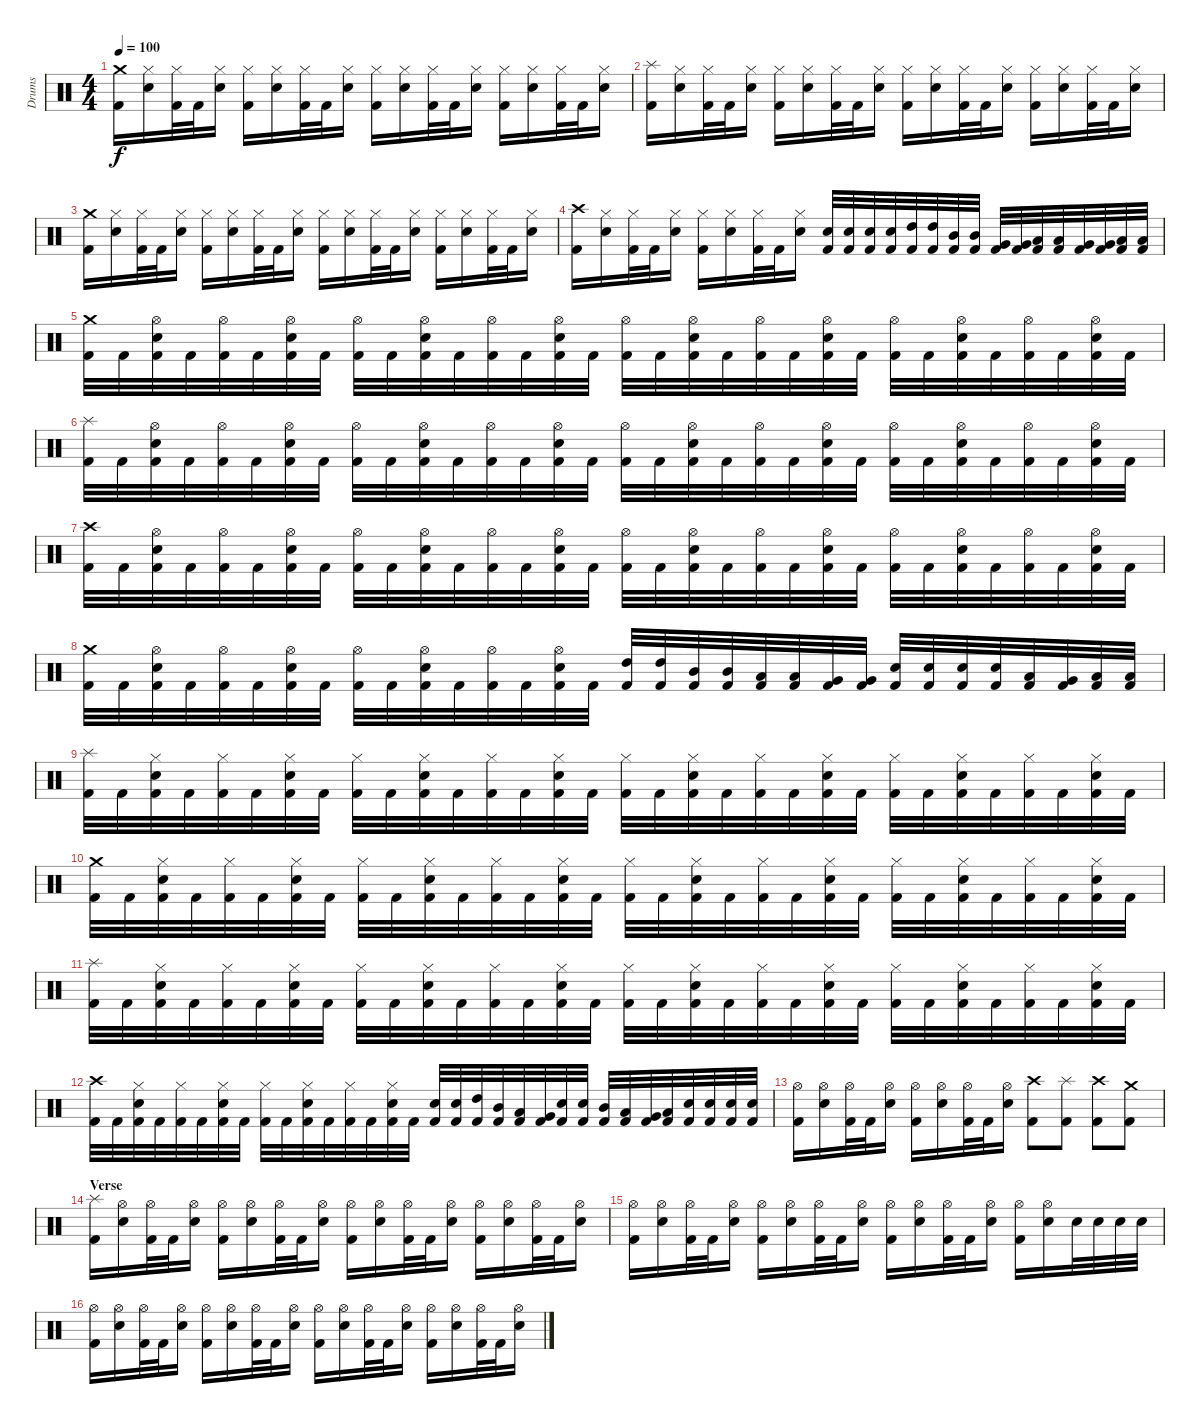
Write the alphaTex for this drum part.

\track ("Drums" "Drums") {instrument percussion}
\staff {score}
\articulation defaults
\ts (4 4)
\section ("" "")
\tempo 100
\clef neutral
\ks c
("Kick (hit) 2" "Crash medium (hit)").16{dy f} ("Electric Snare (hit)" "Hi-Hat (closed)").16 ("Kick (hit) 2" "Hi-Hat (closed)").32 "Kick (hit) 2".32 ("Electric Snare (hit)" "Hi-Hat (closed)").16 ("Kick (hit) 2" "Hi-Hat (closed)").16 ("Electric Snare (hit)" "Hi-Hat (closed)").16 ("Kick (hit) 2" "Hi-Hat (closed)").32 "Kick (hit) 2".32 ("Electric Snare (hit)" "Hi-Hat (closed)").16 ("Kick (hit) 2" "Hi-Hat (closed)").16 ("Electric Snare (hit)" "Hi-Hat (closed)").16 ("Kick (hit) 2" "Hi-Hat (closed)").32 "Kick (hit) 2".32 ("Electric Snare (hit)" "Hi-Hat (closed)").16 ("Kick (hit) 2" "Hi-Hat (closed)").16 ("Electric Snare (hit)" "Hi-Hat (closed)").16 ("Kick (hit) 2" "Hi-Hat (closed)").32 "Kick (hit) 2".32 ("Electric Snare (hit)" "Hi-Hat (closed)").16 |
("Kick (hit) 2" "Splash (hit)").16 ("Electric Snare (hit)" "Hi-Hat (closed)").16 ("Kick (hit) 2" "Hi-Hat (closed)").32 "Kick (hit) 2".32 ("Electric Snare (hit)" "Hi-Hat (closed)").16 ("Kick (hit) 2" "Hi-Hat (closed)").16 ("Electric Snare (hit)" "Hi-Hat (closed)").16 ("Kick (hit) 2" "Hi-Hat (closed)").32 "Kick (hit) 2".32 ("Electric Snare (hit)" "Hi-Hat (closed)").16 ("Kick (hit) 2" "Hi-Hat (closed)").16 ("Electric Snare (hit)" "Hi-Hat (closed)").16 ("Kick (hit) 2" "Hi-Hat (closed)").32 "Kick (hit) 2".32 ("Electric Snare (hit)" "Hi-Hat (closed)").16 ("Kick (hit) 2" "Hi-Hat (closed)").16 ("Electric Snare (hit)" "Hi-Hat (closed)").16 ("Kick (hit) 2" "Hi-Hat (closed)").32 "Kick (hit) 2".32 ("Electric Snare (hit)" "Hi-Hat (closed)").16 |
("Kick (hit) 2" "Crash medium (hit)").16 ("Electric Snare (hit)" "Hi-Hat (closed)").16 ("Kick (hit) 2" "Hi-Hat (closed)").32 "Kick (hit) 2".32 ("Electric Snare (hit)" "Hi-Hat (closed)").16 ("Kick (hit) 2" "Hi-Hat (closed)").16 ("Electric Snare (hit)" "Hi-Hat (closed)").16 ("Kick (hit) 2" "Hi-Hat (closed)").32 "Kick (hit) 2".32 ("Electric Snare (hit)" "Hi-Hat (closed)").16 ("Kick (hit) 2" "Hi-Hat (closed)").16 ("Electric Snare (hit)" "Hi-Hat (closed)").16 ("Kick (hit) 2" "Hi-Hat (closed)").32 "Kick (hit) 2".32 ("Electric Snare (hit)" "Hi-Hat (closed)").16 ("Kick (hit) 2" "Hi-Hat (closed)").16 ("Electric Snare (hit)" "Hi-Hat (closed)").16 ("Kick (hit) 2" "Hi-Hat (closed)").32 "Kick (hit) 2".32 ("Electric Snare (hit)" "Hi-Hat (closed)").16 |
("Kick (hit) 2" "Crash high (hit)").16 ("Electric Snare (hit)" "Hi-Hat (closed)").16 ("Kick (hit) 2" "Hi-Hat (closed)").32 "Kick (hit) 2".32 ("Electric Snare (hit)" "Hi-Hat (closed)").16 ("Kick (hit) 2" "Hi-Hat (closed)").16 ("Electric Snare (hit)" "Hi-Hat (closed)").16 ("Kick (hit) 2" "Hi-Hat (closed)").32 "Kick (hit) 2".32 ("Electric Snare (hit)" "Hi-Hat (closed)").16 ("Kick (hit) 2" "Electric Snare (hit)").32 ("Kick (hit) 2" "Electric Snare (hit)").32 ("Kick (hit) 2" "Electric Snare (hit)").32 ("Kick (hit) 2" "Electric Snare (hit)").32 ("Kick (hit) 2" "High Tom (hit)").32 ("Kick (hit) 2" "High Tom (hit)").32 ("Kick (hit) 2" "Mid Tom (hit)").32 ("Kick (hit) 2" "Mid Tom (hit)").32 ("Kick (hit) 2" "Very Low Tom (hit)").32 ("Kick (hit) 2" "Very Low Tom (hit)").32 ("Kick (hit) 2" "Low Tom (hit)").32 ("Kick (hit) 2" "Low Tom (hit)").32 ("Kick (hit) 2" "Very Low Tom (hit)").32 ("Kick (hit) 2" "Very Low Tom (hit)").32 ("Kick (hit) 2" "Low Floor Tom (hit)").32 ("Kick (hit) 2" "Low Floor Tom (hit)").32 |
\section ("" "")
("Kick (hit) 2" "Crash medium (hit)").32 "Kick (hit) 2".32 ("Kick (hit) 2" "Electric Snare (hit)" "Hi-Hat (open)").32 "Kick (hit) 2".32 ("Kick (hit) 2" "Hi-Hat (open)").32 "Kick (hit) 2".32 ("Kick (hit) 2" "Electric Snare (hit)" "Hi-Hat (open)").32 "Kick (hit) 2".32 ("Kick (hit) 2" "Hi-Hat (open)").32 "Kick (hit) 2".32 ("Kick (hit) 2" "Electric Snare (hit)" "Hi-Hat (open)").32 "Kick (hit) 2".32 ("Kick (hit) 2" "Hi-Hat (open)").32 "Kick (hit) 2".32 ("Kick (hit) 2" "Electric Snare (hit)" "Hi-Hat (open)").32 "Kick (hit) 2".32 ("Kick (hit) 2" "Hi-Hat (open)").32 "Kick (hit) 2".32 ("Kick (hit) 2" "Electric Snare (hit)" "Hi-Hat (open)").32 "Kick (hit) 2".32 ("Kick (hit) 2" "Hi-Hat (open)").32 "Kick (hit) 2".32 ("Kick (hit) 2" "Electric Snare (hit)" "Hi-Hat (open)").32 "Kick (hit) 2".32 ("Kick (hit) 2" "Hi-Hat (open)").32 "Kick (hit) 2".32 ("Kick (hit) 2" "Electric Snare (hit)" "Hi-Hat (open)").32 "Kick (hit) 2".32 ("Kick (hit) 2" "Hi-Hat (open)").32 "Kick (hit) 2".32 ("Kick (hit) 2" "Electric Snare (hit)" "Hi-Hat (open)").32 "Kick (hit) 2".32 |
("Kick (hit) 2" "Splash (hit)").32 "Kick (hit) 2".32 ("Kick (hit) 2" "Electric Snare (hit)" "Hi-Hat (open)").32 "Kick (hit) 2".32 ("Kick (hit) 2" "Hi-Hat (open)").32 "Kick (hit) 2".32 ("Kick (hit) 2" "Electric Snare (hit)" "Hi-Hat (open)").32 "Kick (hit) 2".32 ("Kick (hit) 2" "Hi-Hat (open)").32 "Kick (hit) 2".32 ("Kick (hit) 2" "Electric Snare (hit)" "Hi-Hat (open)").32 "Kick (hit) 2".32 ("Kick (hit) 2" "Hi-Hat (open)").32 "Kick (hit) 2".32 ("Kick (hit) 2" "Electric Snare (hit)" "Hi-Hat (open)").32 "Kick (hit) 2".32 ("Kick (hit) 2" "Hi-Hat (open)").32 "Kick (hit) 2".32 ("Kick (hit) 2" "Electric Snare (hit)" "Hi-Hat (open)").32 "Kick (hit) 2".32 ("Kick (hit) 2" "Hi-Hat (open)").32 "Kick (hit) 2".32 ("Kick (hit) 2" "Electric Snare (hit)" "Hi-Hat (open)").32 "Kick (hit) 2".32 ("Kick (hit) 2" "Hi-Hat (open)").32 "Kick (hit) 2".32 ("Kick (hit) 2" "Electric Snare (hit)" "Hi-Hat (open)").32 "Kick (hit) 2".32 ("Kick (hit) 2" "Hi-Hat (open)").32 "Kick (hit) 2".32 ("Kick (hit) 2" "Electric Snare (hit)" "Hi-Hat (open)").32 "Kick (hit) 2".32 |
("Kick (hit) 2" "Crash high (hit)").32 "Kick (hit) 2".32 ("Kick (hit) 2" "Electric Snare (hit)" "Hi-Hat (open)").32 "Kick (hit) 2".32 ("Kick (hit) 2" "Hi-Hat (open)").32 "Kick (hit) 2".32 ("Kick (hit) 2" "Electric Snare (hit)" "Hi-Hat (open)").32 "Kick (hit) 2".32 ("Kick (hit) 2" "Hi-Hat (open)").32 "Kick (hit) 2".32 ("Kick (hit) 2" "Electric Snare (hit)" "Hi-Hat (open)").32 "Kick (hit) 2".32 ("Kick (hit) 2" "Hi-Hat (open)").32 "Kick (hit) 2".32 ("Kick (hit) 2" "Electric Snare (hit)" "Hi-Hat (open)").32 "Kick (hit) 2".32 ("Kick (hit) 2" "Hi-Hat (open)").32 "Kick (hit) 2".32 ("Kick (hit) 2" "Electric Snare (hit)" "Hi-Hat (open)").32 "Kick (hit) 2".32 ("Kick (hit) 2" "Hi-Hat (open)").32 "Kick (hit) 2".32 ("Kick (hit) 2" "Electric Snare (hit)" "Hi-Hat (open)").32 "Kick (hit) 2".32 ("Kick (hit) 2" "Hi-Hat (open)").32 "Kick (hit) 2".32 ("Kick (hit) 2" "Electric Snare (hit)" "Hi-Hat (open)").32 "Kick (hit) 2".32 ("Kick (hit) 2" "Hi-Hat (open)").32 "Kick (hit) 2".32 ("Kick (hit) 2" "Electric Snare (hit)" "Hi-Hat (open)").32 "Kick (hit) 2".32 |
("Kick (hit) 2" "Crash medium (hit)").32 "Kick (hit) 2".32 ("Kick (hit) 2" "Electric Snare (hit)" "Hi-Hat (open)").32 "Kick (hit) 2".32 ("Kick (hit) 2" "Hi-Hat (open)").32 "Kick (hit) 2".32 ("Kick (hit) 2" "Electric Snare (hit)" "Hi-Hat (open)").32 "Kick (hit) 2".32 ("Kick (hit) 2" "Hi-Hat (open)").32 "Kick (hit) 2".32 ("Kick (hit) 2" "Electric Snare (hit)" "Hi-Hat (open)").32 "Kick (hit) 2".32 ("Kick (hit) 2" "Hi-Hat (open)").32 "Kick (hit) 2".32 ("Kick (hit) 2" "Electric Snare (hit)" "Hi-Hat (open)").32 "Kick (hit) 2".32 ("Kick (hit) 2" "High Tom (hit)").32 ("Kick (hit) 2" "High Tom (hit)").32 ("Kick (hit) 2" "Mid Tom (hit)").32 ("Kick (hit) 2" "Mid Tom (hit)").32 ("Kick (hit) 2" "Low Tom (hit)").32 ("Kick (hit) 2" "Low Tom (hit)").32 ("Kick (hit) 2" "Very Low Tom (hit)").32 ("Kick (hit) 2" "Very Low Tom (hit)").32 ("Kick (hit) 2" "Electric Snare (hit)").32 ("Kick (hit) 2" "Electric Snare (hit)").32 ("Kick (hit) 2" "Electric Snare (hit)").32 ("Kick (hit) 2" "Electric Snare (hit)").32 ("Kick (hit) 2" "Low Tom (hit)").32 ("Kick (hit) 2" "Very Low Tom (hit)").32 ("Kick (hit) 2" "Low Floor Tom (hit)").32 ("Kick (hit) 2" "Low Floor Tom (hit)").32 |
\section ("" "")
("Kick (hit) 2" "Splash (hit)").32 "Kick (hit) 2".32 ("Kick (hit) 2" "Electric Snare (hit)" "Hi-Hat (closed)").32 "Kick (hit) 2".32 ("Kick (hit) 2" "Hi-Hat (closed)").32 "Kick (hit) 2".32 ("Kick (hit) 2" "Electric Snare (hit)" "Hi-Hat (closed)").32 "Kick (hit) 2".32 ("Kick (hit) 2" "Hi-Hat (closed)").32 "Kick (hit) 2".32 ("Kick (hit) 2" "Electric Snare (hit)" "Hi-Hat (closed)").32 "Kick (hit) 2".32 ("Kick (hit) 2" "Hi-Hat (closed)").32 "Kick (hit) 2".32 ("Kick (hit) 2" "Electric Snare (hit)" "Hi-Hat (closed)").32 "Kick (hit) 2".32 ("Kick (hit) 2" "Hi-Hat (closed)").32 "Kick (hit) 2".32 ("Kick (hit) 2" "Electric Snare (hit)" "Hi-Hat (closed)").32 "Kick (hit) 2".32 ("Kick (hit) 2" "Hi-Hat (closed)").32 "Kick (hit) 2".32 ("Kick (hit) 2" "Electric Snare (hit)" "Hi-Hat (closed)").32 "Kick (hit) 2".32 ("Kick (hit) 2" "Hi-Hat (closed)").32 "Kick (hit) 2".32 ("Kick (hit) 2" "Electric Snare (hit)" "Hi-Hat (closed)").32 "Kick (hit) 2".32 ("Kick (hit) 2" "Hi-Hat (closed)").32 "Kick (hit) 2".32 ("Kick (hit) 2" "Electric Snare (hit)" "Hi-Hat (closed)").32 "Kick (hit) 2".32 |
("Kick (hit) 2" "Crash medium (hit)").32 "Kick (hit) 2".32 ("Kick (hit) 2" "Electric Snare (hit)" "Hi-Hat (closed)").32 "Kick (hit) 2".32 ("Kick (hit) 2" "Hi-Hat (closed)").32 "Kick (hit) 2".32 ("Kick (hit) 2" "Electric Snare (hit)" "Hi-Hat (closed)").32 "Kick (hit) 2".32 ("Kick (hit) 2" "Hi-Hat (closed)").32 "Kick (hit) 2".32 ("Kick (hit) 2" "Electric Snare (hit)" "Hi-Hat (closed)").32 "Kick (hit) 2".32 ("Kick (hit) 2" "Hi-Hat (closed)").32 "Kick (hit) 2".32 ("Kick (hit) 2" "Electric Snare (hit)" "Hi-Hat (closed)").32 "Kick (hit) 2".32 ("Kick (hit) 2" "Hi-Hat (closed)").32 "Kick (hit) 2".32 ("Kick (hit) 2" "Electric Snare (hit)" "Hi-Hat (closed)").32 "Kick (hit) 2".32 ("Kick (hit) 2" "Hi-Hat (closed)").32 "Kick (hit) 2".32 ("Kick (hit) 2" "Electric Snare (hit)" "Hi-Hat (closed)").32 "Kick (hit) 2".32 ("Kick (hit) 2" "Hi-Hat (closed)").32 "Kick (hit) 2".32 ("Kick (hit) 2" "Electric Snare (hit)" "Hi-Hat (closed)").32 "Kick (hit) 2".32 ("Kick (hit) 2" "Hi-Hat (closed)").32 "Kick (hit) 2".32 ("Kick (hit) 2" "Electric Snare (hit)" "Hi-Hat (closed)").32 "Kick (hit) 2".32 |
("Kick (hit) 2" "Splash (hit)").32 "Kick (hit) 2".32 ("Kick (hit) 2" "Electric Snare (hit)" "Hi-Hat (closed)").32 "Kick (hit) 2".32 ("Kick (hit) 2" "Hi-Hat (closed)").32 "Kick (hit) 2".32 ("Kick (hit) 2" "Electric Snare (hit)" "Hi-Hat (closed)").32 "Kick (hit) 2".32 ("Kick (hit) 2" "Hi-Hat (closed)").32 "Kick (hit) 2".32 ("Kick (hit) 2" "Electric Snare (hit)" "Hi-Hat (closed)").32 "Kick (hit) 2".32 ("Kick (hit) 2" "Hi-Hat (closed)").32 "Kick (hit) 2".32 ("Kick (hit) 2" "Electric Snare (hit)" "Hi-Hat (closed)").32 "Kick (hit) 2".32 ("Kick (hit) 2" "Hi-Hat (closed)").32 "Kick (hit) 2".32 ("Kick (hit) 2" "Electric Snare (hit)" "Hi-Hat (closed)").32 "Kick (hit) 2".32 ("Kick (hit) 2" "Hi-Hat (closed)").32 "Kick (hit) 2".32 ("Kick (hit) 2" "Electric Snare (hit)" "Hi-Hat (closed)").32 "Kick (hit) 2".32 ("Kick (hit) 2" "Hi-Hat (closed)").32 "Kick (hit) 2".32 ("Kick (hit) 2" "Electric Snare (hit)" "Hi-Hat (closed)").32 "Kick (hit) 2".32 ("Kick (hit) 2" "Hi-Hat (closed)").32 "Kick (hit) 2".32 ("Kick (hit) 2" "Electric Snare (hit)" "Hi-Hat (closed)").32 "Kick (hit) 2".32 |
("Kick (hit) 2" "Crash high (hit)").32 "Kick (hit) 2".32 ("Kick (hit) 2" "Electric Snare (hit)" "Hi-Hat (closed)").32 "Kick (hit) 2".32 ("Kick (hit) 2" "Hi-Hat (closed)").32 "Kick (hit) 2".32 ("Kick (hit) 2" "Electric Snare (hit)" "Hi-Hat (closed)").32 "Kick (hit) 2".32 ("Kick (hit) 2" "Hi-Hat (closed)").32 "Kick (hit) 2".32 ("Kick (hit) 2" "Electric Snare (hit)" "Hi-Hat (closed)").32 "Kick (hit) 2".32 ("Kick (hit) 2" "Hi-Hat (closed)").32 "Kick (hit) 2".32 ("Kick (hit) 2" "Electric Snare (hit)" "Hi-Hat (closed)").32 "Kick (hit) 2".32 ("Kick (hit) 2" "Electric Snare (hit)").32 ("Kick (hit) 2" "Electric Snare (hit)").32 ("Kick (hit) 2" "High Tom (hit)").32 ("Kick (hit) 2" "Mid Tom (hit)").32 ("Kick (hit) 2" "Low Tom (hit)").32 ("Kick (hit) 2" "Very Low Tom (hit)").32 ("Kick (hit) 2" "Electric Snare (hit)").32 ("Kick (hit) 2" "Electric Snare (hit)").32 ("Kick (hit) 2" "Mid Tom (hit)").32 ("Kick (hit) 2" "Low Tom (hit)").32 ("Kick (hit) 2" "Very Low Tom (hit)").32 ("Kick (hit) 2" "Low Floor Tom (hit)").32 ("Kick (hit) 2" "Electric Snare (hit)").32 ("Kick (hit) 2" "Electric Snare (hit)").32 ("Kick (hit) 2" "Electric Snare (hit)").32 ("Kick (hit) 2" "Electric Snare (hit)").32 |
("Kick (hit) 2" "Hi-Hat (open)").16 ("Electric Snare (hit)" "Hi-Hat (open)").16 ("Kick (hit) 2" "Hi-Hat (open)").32 "Kick (hit) 2".32 ("Electric Snare (hit)" "Hi-Hat (open)").16 ("Kick (hit) 2" "Hi-Hat (open)").16 ("Electric Snare (hit)" "Hi-Hat (open)").16 ("Kick (hit) 2" "Hi-Hat (open)").32 "Kick (hit) 2".32 ("Electric Snare (hit)" "Hi-Hat (open)").16 ("Kick (hit) 2" "Crash high (hit)").8 ("Kick (hit) 2" "Splash (hit)").8 ("Kick (hit) 2" "Crash high (hit)").8 ("Kick (hit) 2" "Crash medium (hit)").8 |
\section ("" "Verse")
("Kick (hit) 2" "Splash (hit)").16 ("Electric Snare (hit)" "Hi-Hat (open)").16 ("Kick (hit) 2" "Hi-Hat (open)").32 "Kick (hit) 2".32 ("Electric Snare (hit)" "Hi-Hat (open)").16 ("Kick (hit) 2" "Hi-Hat (open)").16 ("Electric Snare (hit)" "Hi-Hat (open)").16 ("Kick (hit) 2" "Hi-Hat (open)").32 "Kick (hit) 2".32 ("Electric Snare (hit)" "Hi-Hat (open)").16 ("Kick (hit) 2" "Hi-Hat (open)").16 ("Electric Snare (hit)" "Hi-Hat (open)").16 ("Kick (hit) 2" "Hi-Hat (open)").32 "Kick (hit) 2".32 ("Electric Snare (hit)" "Hi-Hat (open)").16 ("Kick (hit) 2" "Hi-Hat (open)").16 ("Electric Snare (hit)" "Hi-Hat (open)").16 ("Kick (hit) 2" "Hi-Hat (open)").32 "Kick (hit) 2".32 ("Electric Snare (hit)" "Hi-Hat (open)").16 |
("Kick (hit) 2" "Hi-Hat (open)").16 ("Electric Snare (hit)" "Hi-Hat (open)").16 ("Kick (hit) 2" "Hi-Hat (open)").32 "Kick (hit) 2".32 ("Electric Snare (hit)" "Hi-Hat (open)").16 ("Kick (hit) 2" "Hi-Hat (open)").16 ("Electric Snare (hit)" "Hi-Hat (open)").16 ("Kick (hit) 2" "Hi-Hat (open)").32 "Kick (hit) 2".32 ("Electric Snare (hit)" "Hi-Hat (open)").16 ("Kick (hit) 2" "Hi-Hat (open)").16 ("Electric Snare (hit)" "Hi-Hat (open)").16 ("Kick (hit) 2" "Hi-Hat (open)").32 "Kick (hit) 2".32 ("Electric Snare (hit)" "Hi-Hat (open)").16 ("Kick (hit) 2" "Hi-Hat (open)").16 ("Electric Snare (hit)" "Hi-Hat (open)").16 "Electric Snare (hit)".32 "Electric Snare (hit)".32 "Electric Snare (hit)".32 "Electric Snare (hit)".32 |
("Kick (hit) 2" "Hi-Hat (open)").16 ("Electric Snare (hit)" "Hi-Hat (open)").16 ("Kick (hit) 2" "Hi-Hat (open)").32 "Kick (hit) 2".32 ("Electric Snare (hit)" "Hi-Hat (open)").16 ("Kick (hit) 2" "Hi-Hat (open)").16 ("Electric Snare (hit)" "Hi-Hat (open)").16 ("Kick (hit) 2" "Hi-Hat (open)").32 "Kick (hit) 2".32 ("Electric Snare (hit)" "Hi-Hat (open)").16 ("Kick (hit) 2" "Hi-Hat (open)").16 ("Electric Snare (hit)" "Hi-Hat (open)").16 ("Kick (hit) 2" "Hi-Hat (open)").32 "Kick (hit) 2".32 ("Electric Snare (hit)" "Hi-Hat (open)").16 ("Kick (hit) 2" "Hi-Hat (open)").16 ("Electric Snare (hit)" "Hi-Hat (open)").16 ("Kick (hit) 2" "Hi-Hat (open)").32 "Kick (hit) 2".32 ("Electric Snare (hit)" "Hi-Hat (open)").16
